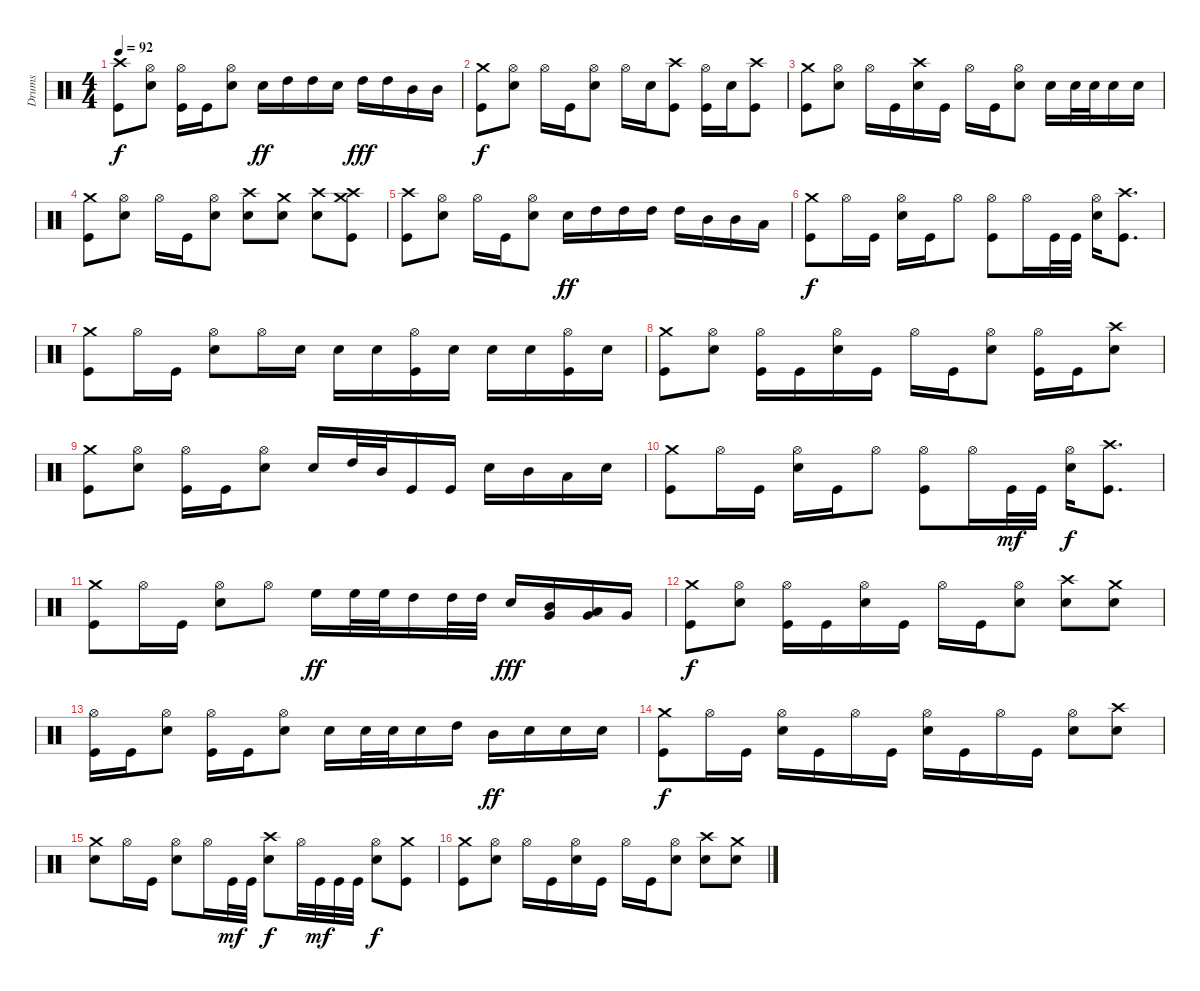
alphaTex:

\track ("Drums" "Drums") {instrument percussion}
\staff {score}
\articulation defaults
\ts (4 4)
\tempo 92
\clef neutral
\ks c
("Crash high (hit)" "Kick (hit)").8{dy f} ("Hi-Hat (open)" "Snare (hit) 2").8 ("Hi-Hat (open)" "Kick (hit)").16 "Kick (hit)".16 ("Hi-Hat (open)" "Snare (hit) 2").8 "Snare (hit) 2".16{dy ff} "High Tom (hit)".16 "High Tom (hit)".16 "Snare (hit) 2".16 "High Tom (hit)".16{dy fff} "High Tom (hit)".16 "Mid Tom (hit)".16 "Mid Tom (hit)".16 |
("Crash medium (hit)" "Kick (hit)").8{dy f} ("Hi-Hat (open)" "Snare (hit) 2").8 "Hi-Hat (open)".16 "Kick (hit)".16 ("Hi-Hat (open)" "Snare (hit) 2").8 "Hi-Hat (open)".16 "Snare (hit) 2".16 ("Crash high (hit)" "Kick (hit)").8 ("Hi-Hat (open)" "Kick (hit)").16 "Snare (hit) 2".16 ("Crash high (hit)" "Kick (hit)").8 |
("Crash medium (hit)" "Kick (hit)").8 ("Hi-Hat (open)" "Snare (hit) 2").8 "Hi-Hat (open)".16 "Kick (hit)".16 ("Crash high (hit)" "Snare (hit) 2").16 "Kick (hit)".16 "Hi-Hat (open)".16 "Kick (hit)".16 ("Hi-Hat (open)" "Snare (hit) 2").8 "Snare (hit) 2".16 "Snare (hit) 2".32 "Snare (hit) 2".32 "Snare (hit) 2".16 "Snare (hit) 2".16 |
("Crash medium (hit)" "Kick (hit)").8 ("Hi-Hat (open)" "Snare (hit) 2").8 "Hi-Hat (open)".16 "Kick (hit)".16 ("Hi-Hat (open)" "Snare (hit) 2").8 ("Crash high (hit)" "Snare (hit) 2").8 ("Crash medium (hit)" "Snare (hit) 2").8 ("Crash high (hit)" "Snare (hit) 2").8 ("Crash medium (hit)" "Crash high (hit)" "Kick (hit)").8 |
("Crash high (hit)" "Kick (hit)").8 ("Hi-Hat (open)" "Snare (hit) 2").8 "Hi-Hat (open)".16 "Kick (hit)".16 ("Hi-Hat (open)" "Snare (hit) 2").8 "Snare (hit) 2".16{dy ff} "High Tom (hit)".16 "High Tom (hit)".16 "High Tom (hit)".16 "High Tom (hit)".16 "Mid Tom (hit)".16 "Mid Tom (hit)".16 "Low Tom (hit)".16 |
("Crash medium (hit)" "Kick (hit)").8{dy f} "Hi-Hat (open)".16 "Kick (hit)".16 ("Hi-Hat (open)" "Snare (hit) 2").16 "Kick (hit)".16 "Hi-Hat (open)".8 ("Hi-Hat (open)" "Kick (hit)").8 "Hi-Hat (open)".16 "Kick (hit)".32 "Kick (hit)".32 ("Hi-Hat (open)" "Snare (hit) 2").16 ("Crash high (hit)" "Kick (hit)").8{d} |
("Crash medium (hit)" "Kick (hit)").8 "Hi-Hat (open)".16 "Kick (hit)".16 ("Hi-Hat (open)" "Snare (hit) 2").8 "Hi-Hat (open)".16 "Snare (hit) 2".16 "Snare (hit) 2".16 "Snare (hit) 2".16 ("Hi-Hat (open)" "Kick (hit)").16 "Snare (hit) 2".16 "Snare (hit) 2".16 "Snare (hit) 2".16 ("Hi-Hat (open)" "Kick (hit)").16 "Snare (hit) 2".16 |
("Crash medium (hit)" "Kick (hit)").8 ("Hi-Hat (open)" "Snare (hit) 2").8 ("Hi-Hat (open)" "Kick (hit)").16 "Kick (hit)".16 ("Hi-Hat (open)" "Snare (hit) 2").16 "Kick (hit)".16 "Hi-Hat (open)".16 "Kick (hit)".16 ("Hi-Hat (open)" "Snare (hit) 2").8 ("Hi-Hat (open)" "Kick (hit)").16 "Kick (hit)".16 ("Crash high (hit)" "Snare (hit) 2").8 |
("Crash medium (hit)" "Kick (hit)").8 ("Hi-Hat (open)" "Snare (hit) 2").8 ("Hi-Hat (open)" "Kick (hit)").16 "Kick (hit)".16 ("Hi-Hat (open)" "Snare (hit) 2").8 "Snare (hit) 2".16 "High Tom (hit)".32 "Mid Tom (hit)".32 "Kick (hit)".16 "Kick (hit)".16 "Snare (hit) 2".16 "Mid Tom (hit)".16 "Low Tom (hit)".16 "Snare (hit) 2".16 |
("Crash medium (hit)" "Kick (hit)").8 "Hi-Hat (open)".16 "Kick (hit)".16 ("Hi-Hat (open)" "Snare (hit) 2").16 "Kick (hit)".16 "Hi-Hat (open)".8 ("Hi-Hat (open)" "Kick (hit)").8 "Hi-Hat (open)".16 "Kick (hit)".32{dy mf} "Kick (hit)".32 ("Hi-Hat (open)" "Snare (hit) 2").16{dy f} ("Crash high (hit)" "Kick (hit)").8{d} |
("Crash medium (hit)" "Kick (hit)").8 "Hi-Hat (open)".16 "Kick (hit)".16 ("Hi-Hat (open)" "Snare (hit) 2").8 "Hi-Hat (open)".8 "High Floor Tom (hit)".16{dy ff} "High Floor Tom (hit)".32 "High Floor Tom (hit)".32 "High Tom (hit)".16 "High Tom (hit)".32 "High Tom (hit)".32 "Snare (hit) 2".16{dy fff} ("Very Low Tom (hit)" "Mid Tom (hit)").16 ("Very Low Tom (hit)" "Low Tom (hit)").16 "Very Low Tom (hit)".16 |
("Crash medium (hit)" "Kick (hit)").8{dy f} ("Hi-Hat (open)" "Snare (hit) 2").8 ("Hi-Hat (open)" "Kick (hit)").16 "Kick (hit)".16 ("Hi-Hat (open)" "Snare (hit) 2").16 "Kick (hit)".16 "Hi-Hat (open)".16 "Kick (hit)".16 ("Hi-Hat (open)" "Snare (hit) 2").8 ("Crash high (hit)" "Snare (hit) 2").8 ("Crash medium (hit)" "Snare (hit) 2").8 |
("Hi-Hat (open)" "Kick (hit)").16 "Kick (hit)".16 ("Hi-Hat (open)" "Snare (hit) 2").8 ("Hi-Hat (open)" "Kick (hit)").16 "Kick (hit)".16 ("Hi-Hat (open)" "Snare (hit) 2").8 "Snare (hit) 2".16 "Snare (hit) 2".32 "Snare (hit) 2".32 "Snare (hit) 2".16 "High Tom (hit)".16 "Mid Tom (hit)".16{dy ff} "Snare (hit) 2".16 "Snare (hit) 2".16 "Snare (hit) 2".16 |
("Crash medium (hit)" "Kick (hit)").8{dy f} "Hi-Hat (open)".16 "Kick (hit)".16 ("Hi-Hat (open)" "Snare (hit) 2").16 "Kick (hit)".16 "Hi-Hat (open)".16 "Kick (hit)".16 ("Hi-Hat (open)" "Snare (hit) 2").16 "Kick (hit)".16 "Hi-Hat (open)".16 "Kick (hit)".16 ("Hi-Hat (open)" "Snare (hit) 2").8 ("Crash high (hit)" "Snare (hit) 2").8 |
("Crash medium (hit)" "Snare (hit) 2").8 "Hi-Hat (open)".16 "Kick (hit)".16 ("Hi-Hat (open)" "Snare (hit) 2").8 "Hi-Hat (open)".16 "Kick (hit)".32{dy mf} "Kick (hit)".32 ("Crash high (hit)" "Snare (hit) 2").8{dy f} "Hi-Hat (open)".32 "Kick (hit)".32{dy mf} "Kick (hit)".32 "Kick (hit)".32 ("Hi-Hat (open)" "Snare (hit) 2").8{dy f} ("Crash medium (hit)" "Kick (hit)").8 |
("Crash medium (hit)" "Kick (hit)").8 ("Hi-Hat (open)" "Snare (hit) 2").8 "Hi-Hat (open)".16 "Kick (hit)".16 ("Hi-Hat (open)" "Snare (hit) 2").16 "Kick (hit)".16 "Hi-Hat (open)".16 "Kick (hit)".16 ("Hi-Hat (open)" "Snare (hit) 2").8 ("Crash high (hit)" "Snare (hit) 2").8 ("Crash medium (hit)" "Snare (hit) 2").8
